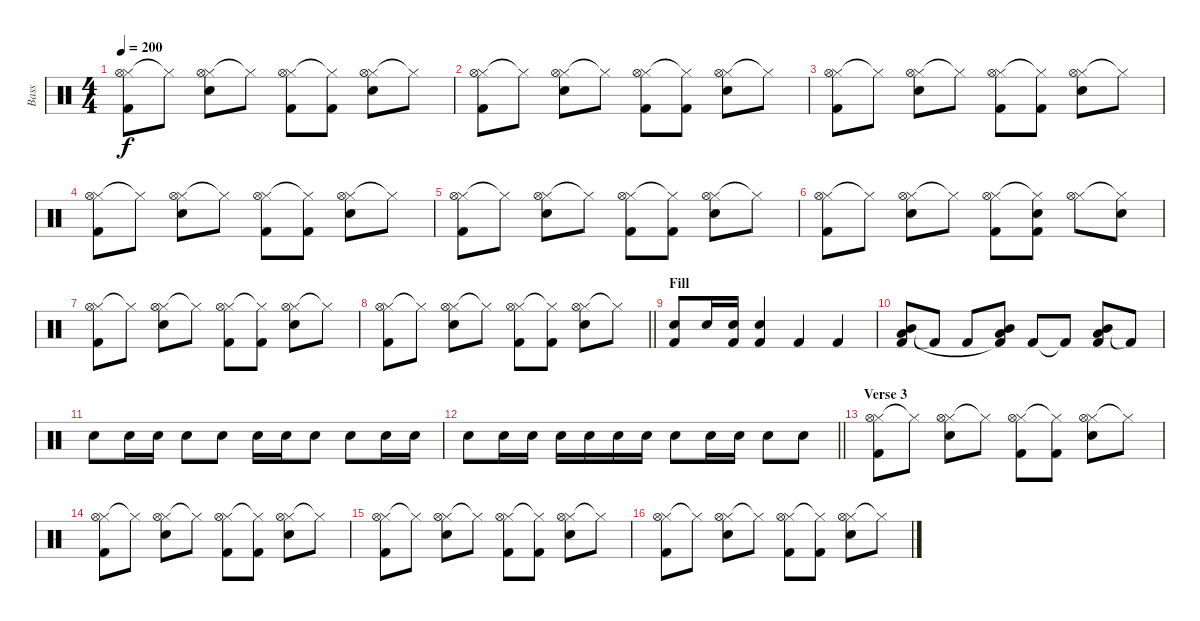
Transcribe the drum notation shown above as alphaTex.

\track ("Bass" "Bass") {instrument percussion}
\staff {score}
\articulation defaults
\ts (4 4)
\tempo 200
\clef neutral
\ks c
("Hi-Hat (closed)" "Hi-Hat (open)" "Kick (hit) 2").8{dy f} "Hi-Hat (closed)"{t}.8 ("Hi-Hat (closed)" "Hi-Hat (open)" "Snare (hit) 2").8 "Hi-Hat (closed)"{t}.8 ("Hi-Hat (closed)" "Hi-Hat (open)" "Kick (hit) 2").8 ("Hi-Hat (closed)"{t} "Kick (hit) 2").8 ("Hi-Hat (closed)" "Hi-Hat (open)" "Snare (hit) 2").8 "Hi-Hat (closed)"{t}.8 |
("Hi-Hat (closed)" "Hi-Hat (open)" "Kick (hit) 2").8 "Hi-Hat (closed)"{t}.8 ("Hi-Hat (closed)" "Hi-Hat (open)" "Snare (hit) 2").8 "Hi-Hat (closed)"{t}.8 ("Hi-Hat (closed)" "Hi-Hat (open)" "Kick (hit) 2").8 ("Hi-Hat (closed)"{t} "Kick (hit) 2").8 ("Hi-Hat (closed)" "Hi-Hat (open)" "Snare (hit) 2").8 "Hi-Hat (closed)"{t}.8 |
("Hi-Hat (closed)" "Hi-Hat (open)" "Kick (hit) 2").8 "Hi-Hat (closed)"{t}.8 ("Hi-Hat (closed)" "Hi-Hat (open)" "Snare (hit) 2").8 "Hi-Hat (closed)"{t}.8 ("Hi-Hat (closed)" "Hi-Hat (open)" "Kick (hit) 2").8 ("Hi-Hat (closed)"{t} "Kick (hit) 2").8 ("Hi-Hat (closed)" "Hi-Hat (open)" "Snare (hit) 2").8 "Hi-Hat (closed)"{t}.8 |
("Hi-Hat (closed)" "Hi-Hat (open)" "Kick (hit) 2").8 "Hi-Hat (closed)"{t}.8 ("Hi-Hat (closed)" "Hi-Hat (open)" "Snare (hit) 2").8 "Hi-Hat (closed)"{t}.8 ("Hi-Hat (closed)" "Hi-Hat (open)" "Kick (hit) 2").8 ("Hi-Hat (closed)"{t} "Kick (hit) 2").8 ("Hi-Hat (closed)" "Hi-Hat (open)" "Snare (hit) 2").8 "Hi-Hat (closed)"{t}.8 |
("Hi-Hat (closed)" "Hi-Hat (open)" "Kick (hit) 2").8 "Hi-Hat (closed)"{t}.8 ("Hi-Hat (closed)" "Hi-Hat (open)" "Snare (hit) 2").8 "Hi-Hat (closed)"{t}.8 ("Hi-Hat (closed)" "Hi-Hat (open)" "Kick (hit) 2").8 ("Hi-Hat (closed)"{t} "Kick (hit) 2").8 ("Hi-Hat (closed)" "Hi-Hat (open)" "Snare (hit) 2").8 "Hi-Hat (closed)"{t}.8 |
("Hi-Hat (closed)" "Hi-Hat (open)" "Kick (hit) 2").8 "Hi-Hat (closed)"{t}.8 ("Hi-Hat (closed)" "Hi-Hat (open)" "Snare (hit) 2").8 "Hi-Hat (closed)"{t}.8 ("Hi-Hat (closed)" "Hi-Hat (open)" "Kick (hit) 2").8 ("Hi-Hat (closed)"{t} "Snare (hit) 2" "Kick (hit) 2").8 ("Hi-Hat (closed)" "Hi-Hat (open)").8 ("Hi-Hat (closed)"{t} "Snare (hit) 2").8 |
("Hi-Hat (closed)" "Hi-Hat (open)" "Kick (hit) 2").8 "Hi-Hat (closed)"{t}.8 ("Hi-Hat (closed)" "Hi-Hat (open)" "Snare (hit) 2").8 "Hi-Hat (closed)"{t}.8 ("Hi-Hat (closed)" "Hi-Hat (open)" "Kick (hit) 2").8 ("Hi-Hat (closed)"{t} "Kick (hit) 2").8 ("Hi-Hat (closed)" "Hi-Hat (open)" "Snare (hit) 2").8 "Hi-Hat (closed)"{t}.8 |
\barLineRight lightlight
("Hi-Hat (closed)" "Hi-Hat (open)" "Kick (hit) 2").8 "Hi-Hat (closed)"{t}.8 ("Hi-Hat (closed)" "Hi-Hat (open)" "Snare (hit) 2").8 "Hi-Hat (closed)"{t}.8 ("Hi-Hat (closed)" "Hi-Hat (open)" "Kick (hit) 2").8 ("Hi-Hat (closed)"{t} "Kick (hit) 2").8 ("Hi-Hat (closed)" "Hi-Hat (open)" "Snare (hit) 2").8 "Hi-Hat (closed)"{t}.8 |
\section ("" "Fill")
("Snare (hit) 2" "Kick (hit) 2").8 "Snare (hit) 2".16 ("Snare (hit) 2" "Kick (hit) 2").16 ("Snare (hit) 2" "Kick (hit) 2").4 "Kick (hit) 2".4 "Kick (hit) 2".4 |
("Mid Tom (hit)" "Low Floor Tom (hit)" "Kick (hit) 2").8 "Kick (hit) 2"{t}.8 "Kick (hit) 2".8 ("Mid Tom (hit)" "Low Floor Tom (hit)" "Kick (hit) 2"{t}).8 "Kick (hit) 2".8 "Kick (hit) 2"{t}.8 ("Mid Tom (hit)" "Low Floor Tom (hit)" "Kick (hit) 2").8 "Kick (hit) 2"{t}.8 |
"Snare (hit) 2".8 "Snare (hit) 2".16 "Snare (hit) 2".16 "Snare (hit) 2".8 "Snare (hit) 2".8 "Snare (hit) 2".16 "Snare (hit) 2".16 "Snare (hit) 2".8 "Snare (hit) 2".8 "Snare (hit) 2".16 "Snare (hit) 2".16 |
\barLineRight lightlight "Snare (hit) 2".8 "Snare (hit) 2".16 "Snare (hit) 2".16 "Snare (hit) 2".16 "Snare (hit) 2".16 "Snare (hit) 2".16 "Snare (hit) 2".16 "Snare (hit) 2".8 "Snare (hit) 2".16 "Snare (hit) 2".16 "Snare (hit) 2".8 "Snare (hit) 2".8
|
\section ("" "Verse 3 ")
("Hi-Hat (closed)" "Hi-Hat (open)" "Kick (hit) 2").8 "Hi-Hat (closed)"{t}.8 ("Hi-Hat (closed)" "Hi-Hat (open)" "Snare (hit) 2").8 "Hi-Hat (closed)"{t}.8 ("Hi-Hat (closed)" "Hi-Hat (open)" "Kick (hit) 2").8 ("Hi-Hat (closed)"{t} "Kick (hit) 2").8 ("Hi-Hat (closed)" "Hi-Hat (open)" "Snare (hit) 2").8 "Hi-Hat (closed)"{t}.8 |
("Hi-Hat (closed)" "Hi-Hat (open)" "Kick (hit) 2").8 "Hi-Hat (closed)"{t}.8 ("Hi-Hat (closed)" "Hi-Hat (open)" "Snare (hit) 2").8 "Hi-Hat (closed)"{t}.8 ("Hi-Hat (closed)" "Hi-Hat (open)" "Kick (hit) 2").8 ("Hi-Hat (closed)"{t} "Kick (hit) 2").8 ("Hi-Hat (closed)" "Hi-Hat (open)" "Snare (hit) 2").8 "Hi-Hat (closed)"{t}.8 |
("Hi-Hat (closed)" "Hi-Hat (open)" "Kick (hit) 2").8 "Hi-Hat (closed)"{t}.8 ("Hi-Hat (closed)" "Hi-Hat (open)" "Snare (hit) 2").8 "Hi-Hat (closed)"{t}.8 ("Hi-Hat (closed)" "Hi-Hat (open)" "Kick (hit) 2").8 ("Hi-Hat (closed)"{t} "Kick (hit) 2").8 ("Hi-Hat (closed)" "Hi-Hat (open)" "Snare (hit) 2").8 "Hi-Hat (closed)"{t}.8 |
("Hi-Hat (closed)" "Hi-Hat (open)" "Kick (hit) 2").8 "Hi-Hat (closed)"{t}.8 ("Hi-Hat (closed)" "Hi-Hat (open)" "Snare (hit) 2").8 "Hi-Hat (closed)"{t}.8 ("Hi-Hat (closed)" "Hi-Hat (open)" "Kick (hit) 2").8 ("Hi-Hat (closed)"{t} "Kick (hit) 2").8 ("Hi-Hat (closed)" "Hi-Hat (open)" "Snare (hit) 2").8 "Hi-Hat (closed)"{t}.8
